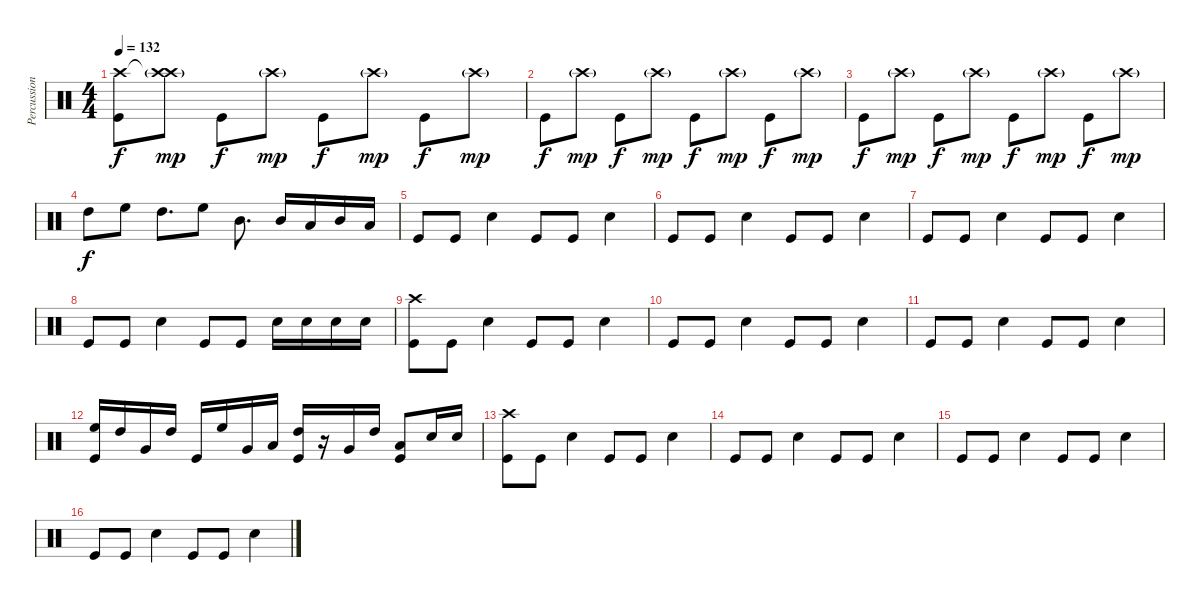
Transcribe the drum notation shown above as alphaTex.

\track ("Percussion" "Percussion") {instrument percussion}
\staff {score}
\articulation defaults
\ts (4 4)
\tempo 132
\clef neutral
\ks c
("Crash high (hit)" "Kick (hit)").8{dy f} ("Crash high (hit)"{t} "Crash high (hit)"{g}).8{dy mp} "Kick (hit)".8{dy f} "Crash high (hit)"{g}.8{dy mp} "Kick (hit)".8{dy f} "Crash high (hit)"{g}.8{dy mp} "Kick (hit)".8{dy f} "Crash high (hit)"{g}.8{dy mp} |
"Kick (hit)".8{dy f} "Crash high (hit)"{g}.8{dy mp} "Kick (hit)".8{dy f} "Crash high (hit)"{g}.8{dy mp} "Kick (hit)".8{dy f} "Crash high (hit)"{g}.8{dy mp} "Kick (hit)".8{dy f} "Crash high (hit)"{g}.8{dy mp} |
"Kick (hit)".8{dy f} "Crash high (hit)"{g}.8{dy mp} "Kick (hit)".8{dy f} "Crash high (hit)"{g}.8{dy mp} "Kick (hit)".8{dy f} "Crash high (hit)"{g}.8{dy mp} "Kick (hit)".8{dy f} "Crash high (hit)"{g}.8{dy mp} |
"High Tom (hit)".8{dy f} "High Floor Tom (hit)".8 "High Tom (hit)".8{d} "High Floor Tom (hit)".8 "Mid Tom (hit)".8{d} "Mid Tom (hit)".16 "Low Tom (hit)".16 "Mid Tom (hit)".16 "Low Floor Tom (hit)".16 |
"Kick (hit)".8 "Kick (hit)".8 "Snare (hit) 2".4 "Kick (hit)".8 "Kick (hit)".8 "Snare (hit) 2".4 |
"Kick (hit)".8 "Kick (hit)".8 "Snare (hit) 2".4 "Kick (hit)".8 "Kick (hit)".8 "Snare (hit) 2".4 |
"Kick (hit)".8 "Kick (hit)".8 "Snare (hit) 2".4 "Kick (hit)".8 "Kick (hit)".8 "Snare (hit) 2".4 |
"Kick (hit)".8 "Kick (hit)".8 "Snare (hit) 2".4 "Kick (hit)".8 "Kick (hit)".8 "Snare (hit) 2".16 "Snare (hit) 2".16 "Snare (hit) 2".16 "Snare (hit) 2".16 |
("Crash high (hit)" "Kick (hit)").8 "Kick (hit)".8 "Snare (hit) 2".4 "Kick (hit)".8 "Kick (hit)".8 "Snare (hit) 2".4 |
"Kick (hit)".8 "Kick (hit)".8 "Snare (hit) 2".4 "Kick (hit)".8 "Kick (hit)".8 "Snare (hit) 2".4 |
"Kick (hit)".8 "Kick (hit)".8 "Snare (hit) 2".4 "Kick (hit)".8 "Kick (hit)".8 "Snare (hit) 2".4 |
("High Floor Tom (hit)" "Kick (hit)").16 "High Tom (hit)".16 "Very Low Tom (hit)".16 "High Tom (hit)".16 "Kick (hit)".16 "High Floor Tom (hit)".16 "Very Low Tom (hit)".16 "Low Floor Tom (hit)".16 ("High Tom (hit)" "Kick (hit)").16 r.16 "Very Low Tom (hit)".16 "High Tom (hit)".16 ("Low Floor Tom (hit)" "Kick (hit)").8 "Electric Snare (hit)".16 "Electric Snare (hit)".16 |
("Crash high (hit)" "Kick (hit)").8 "Kick (hit)".8 "Snare (hit) 2".4 "Kick (hit)".8 "Kick (hit)".8 "Snare (hit) 2".4 |
"Kick (hit)".8 "Kick (hit)".8 "Snare (hit) 2".4 "Kick (hit)".8 "Kick (hit)".8 "Snare (hit) 2".4 |
"Kick (hit)".8 "Kick (hit)".8 "Snare (hit) 2".4 "Kick (hit)".8 "Kick (hit)".8 "Snare (hit) 2".4 |
"Kick (hit)".8 "Kick (hit)".8 "Snare (hit) 2".4 "Kick (hit)".8 "Kick (hit)".8 "Snare (hit) 2".4
